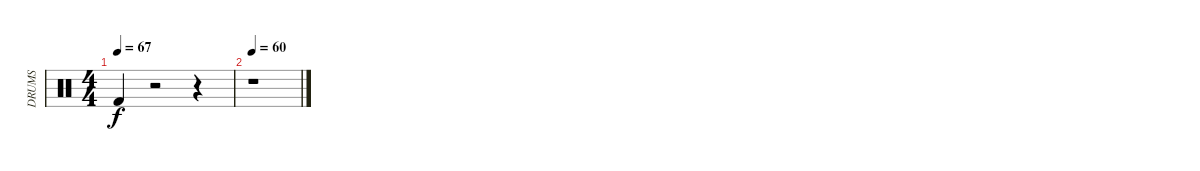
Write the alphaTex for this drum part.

\track ("DRUMS" "DRUMS") {instrument percussion}
\staff {score}
\articulation defaults
\ts (4 4)
\tempo 67
\clef neutral
\ks c "Kick (hit) 2".4{dy f}
r.2 r.4 |
\tempo 60
r.1
